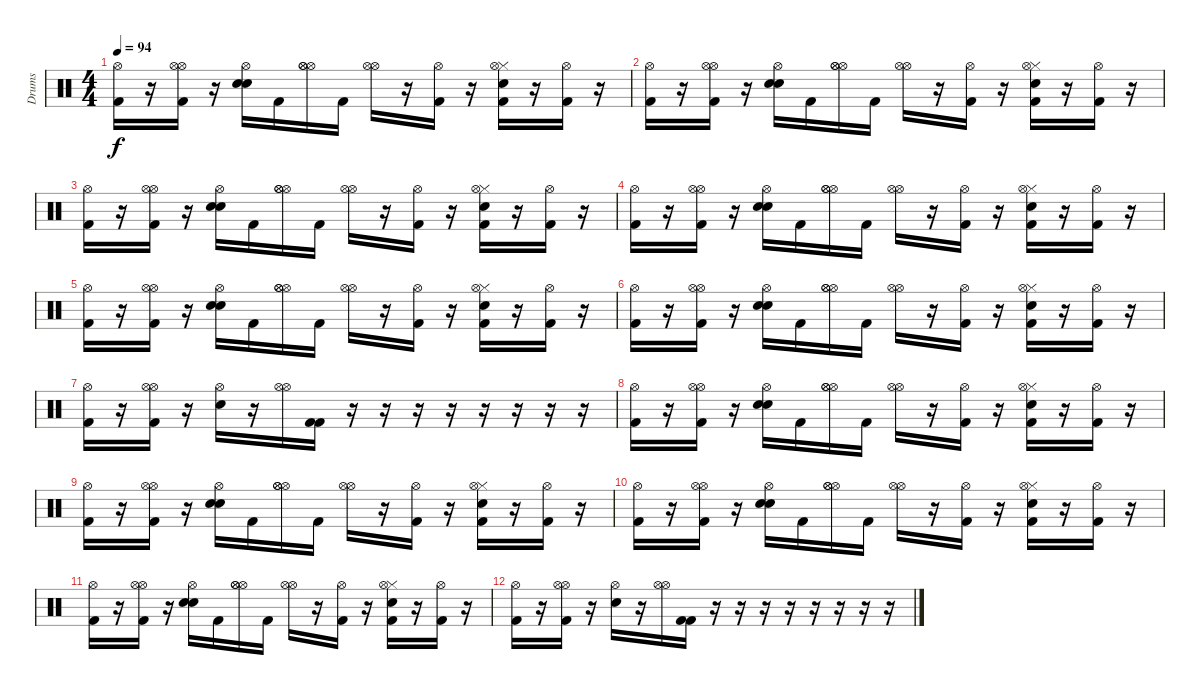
\track ("Drums" "Drums") {instrument percussion}
\staff {score}
\articulation defaults
\ts (4 4)
\tempo 94
\clef neutral
\ks c
("Hi-Hat (open)" "Kick (hit) 2").16{dy f} r.16 ("Hi-Hat (open)" "Hi-Hat (open)" "Kick (hit) 2").16 r.16 ("Hi-Hat (open)" "Snare (hit) 2" "Snare (hit) 2").16 "Kick (hit) 2".16 ("Hi-Hat (open)" "Hi-Hat (open)" "Hi-Hat (open)").16 "Kick (hit) 2".16 ("Hi-Hat (open)" "Hi-Hat (open)").16 r.16 ("Hi-Hat (open)" "Kick (hit) 2").16 r.16 ("Hi-Hat (closed)" "Snare (hit) 2" "Hi-Hat (open)" "Kick (hit) 2").16 r.16 ("Hi-Hat (open)" "Kick (hit) 2").16 r.16 |
("Hi-Hat (open)" "Kick (hit) 2").16 r.16 ("Hi-Hat (open)" "Hi-Hat (open)" "Kick (hit) 2").16 r.16 ("Hi-Hat (open)" "Snare (hit) 2" "Snare (hit) 2").16 "Kick (hit) 2".16 ("Hi-Hat (open)" "Hi-Hat (open)" "Hi-Hat (open)").16 "Kick (hit) 2".16 ("Hi-Hat (open)" "Hi-Hat (open)").16 r.16 ("Hi-Hat (open)" "Kick (hit) 2").16 r.16 ("Hi-Hat (closed)" "Snare (hit) 2" "Hi-Hat (open)" "Kick (hit) 2").16 r.16 ("Hi-Hat (open)" "Kick (hit) 2").16 r.16 |
("Hi-Hat (open)" "Kick (hit) 2").16 r.16 ("Hi-Hat (open)" "Hi-Hat (open)" "Kick (hit) 2").16 r.16 ("Hi-Hat (open)" "Snare (hit) 2" "Snare (hit) 2").16 "Kick (hit) 2".16 ("Hi-Hat (open)" "Hi-Hat (open)" "Hi-Hat (open)").16 "Kick (hit) 2".16 ("Hi-Hat (open)" "Hi-Hat (open)").16 r.16 ("Hi-Hat (open)" "Kick (hit) 2").16 r.16 ("Hi-Hat (closed)" "Snare (hit) 2" "Hi-Hat (open)" "Kick (hit) 2").16 r.16 ("Hi-Hat (open)" "Kick (hit) 2").16 r.16 |
("Hi-Hat (open)" "Kick (hit) 2").16 r.16 ("Hi-Hat (open)" "Hi-Hat (open)" "Kick (hit) 2").16 r.16 ("Hi-Hat (open)" "Snare (hit) 2" "Snare (hit) 2").16 "Kick (hit) 2".16 ("Hi-Hat (open)" "Hi-Hat (open)" "Hi-Hat (open)").16 "Kick (hit) 2".16 ("Hi-Hat (open)" "Hi-Hat (open)").16 r.16 ("Hi-Hat (open)" "Kick (hit) 2").16 r.16 ("Hi-Hat (closed)" "Snare (hit) 2" "Hi-Hat (open)" "Kick (hit) 2").16 r.16 ("Hi-Hat (open)" "Kick (hit) 2").16 r.16 |
("Hi-Hat (open)" "Kick (hit) 2").16 r.16 ("Hi-Hat (open)" "Hi-Hat (open)" "Kick (hit) 2").16 r.16 ("Hi-Hat (open)" "Snare (hit) 2" "Snare (hit) 2").16 "Kick (hit) 2".16 ("Hi-Hat (open)" "Hi-Hat (open)" "Hi-Hat (open)").16 "Kick (hit) 2".16 ("Hi-Hat (open)" "Hi-Hat (open)").16 r.16 ("Hi-Hat (open)" "Kick (hit) 2").16 r.16 ("Hi-Hat (closed)" "Snare (hit) 2" "Hi-Hat (open)" "Kick (hit) 2").16 r.16 ("Hi-Hat (open)" "Kick (hit) 2").16 r.16 |
("Hi-Hat (open)" "Kick (hit) 2").16 r.16 ("Hi-Hat (open)" "Hi-Hat (open)" "Kick (hit) 2").16 r.16 ("Hi-Hat (open)" "Snare (hit) 2" "Snare (hit) 2").16 "Kick (hit) 2".16 ("Hi-Hat (open)" "Hi-Hat (open)" "Hi-Hat (open)").16 "Kick (hit) 2".16 ("Hi-Hat (open)" "Hi-Hat (open)").16 r.16 ("Hi-Hat (open)" "Kick (hit) 2").16 r.16 ("Hi-Hat (closed)" "Snare (hit) 2" "Hi-Hat (open)" "Kick (hit) 2").16 r.16 ("Hi-Hat (open)" "Kick (hit) 2").16 r.16 |
("Hi-Hat (open)" "Kick (hit) 2").16 r.16 ("Hi-Hat (open)" "Hi-Hat (open)" "Kick (hit) 2").16 r.16 ("Hi-Hat (open)" "Snare (hit) 2").16 r.16 ("Hi-Hat (open)" "Hi-Hat (open)").16 ("Kick (hit) 2" "Kick (hit) 2").16 r.16 r.16 r.16 r.16 r.16 r.16 r.16 r.16 |
("Hi-Hat (open)" "Kick (hit) 2").16 r.16 ("Hi-Hat (open)" "Hi-Hat (open)" "Kick (hit) 2").16 r.16 ("Hi-Hat (open)" "Snare (hit) 2" "Snare (hit) 2").16 "Kick (hit) 2".16 ("Hi-Hat (open)" "Hi-Hat (open)" "Hi-Hat (open)").16 "Kick (hit) 2".16 ("Hi-Hat (open)" "Hi-Hat (open)").16 r.16 ("Hi-Hat (open)" "Kick (hit) 2").16 r.16 ("Hi-Hat (closed)" "Snare (hit) 2" "Hi-Hat (open)" "Kick (hit) 2").16 r.16 ("Hi-Hat (open)" "Kick (hit) 2").16 r.16 |
("Hi-Hat (open)" "Kick (hit) 2").16 r.16 ("Hi-Hat (open)" "Hi-Hat (open)" "Kick (hit) 2").16 r.16 ("Hi-Hat (open)" "Snare (hit) 2" "Snare (hit) 2").16 "Kick (hit) 2".16 ("Hi-Hat (open)" "Hi-Hat (open)" "Hi-Hat (open)").16 "Kick (hit) 2".16 ("Hi-Hat (open)" "Hi-Hat (open)").16 r.16 ("Hi-Hat (open)" "Kick (hit) 2").16 r.16 ("Hi-Hat (closed)" "Snare (hit) 2" "Hi-Hat (open)" "Kick (hit) 2").16 r.16 ("Hi-Hat (open)" "Kick (hit) 2").16 r.16 |
("Hi-Hat (open)" "Kick (hit) 2").16 r.16 ("Hi-Hat (open)" "Hi-Hat (open)" "Kick (hit) 2").16 r.16 ("Hi-Hat (open)" "Snare (hit) 2" "Snare (hit) 2").16 "Kick (hit) 2".16 ("Hi-Hat (open)" "Hi-Hat (open)" "Hi-Hat (open)").16 "Kick (hit) 2".16 ("Hi-Hat (open)" "Hi-Hat (open)").16 r.16 ("Hi-Hat (open)" "Kick (hit) 2").16 r.16 ("Hi-Hat (closed)" "Snare (hit) 2" "Hi-Hat (open)" "Kick (hit) 2").16 r.16 ("Hi-Hat (open)" "Kick (hit) 2").16 r.16 |
("Hi-Hat (open)" "Kick (hit) 2").16 r.16 ("Hi-Hat (open)" "Hi-Hat (open)" "Kick (hit) 2").16 r.16 ("Hi-Hat (open)" "Snare (hit) 2" "Snare (hit) 2").16 "Kick (hit) 2".16 ("Hi-Hat (open)" "Hi-Hat (open)" "Hi-Hat (open)").16 "Kick (hit) 2".16 ("Hi-Hat (open)" "Hi-Hat (open)").16 r.16 ("Hi-Hat (open)" "Kick (hit) 2").16 r.16 ("Hi-Hat (closed)" "Snare (hit) 2" "Hi-Hat (open)" "Kick (hit) 2").16 r.16 ("Hi-Hat (open)" "Kick (hit) 2").16 r.16 |
("Hi-Hat (open)" "Kick (hit) 2").16 r.16 ("Hi-Hat (open)" "Hi-Hat (open)" "Kick (hit) 2").16 r.16 ("Hi-Hat (open)" "Snare (hit) 2").16 r.16 ("Hi-Hat (open)" "Hi-Hat (open)").16 ("Kick (hit) 2" "Kick (hit) 2").16 r.16 r.16 r.16 r.16 r.16 r.16 r.16 r.16
